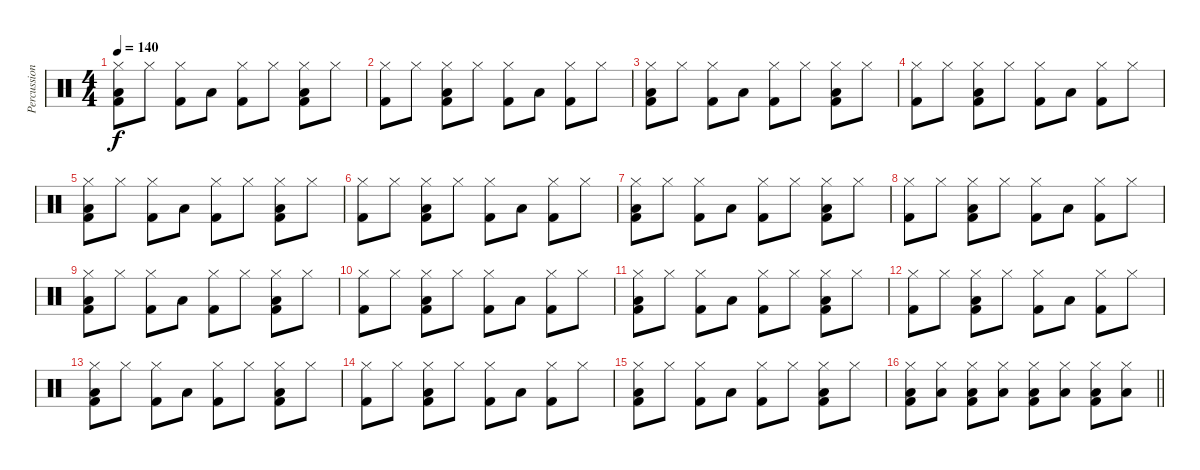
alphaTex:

\track ("Percussion" "Percussion") {instrument percussion}
\staff {score}
\articulation defaults
\ts (4 4)
\tempo 140
\clef neutral
\ks c
("Hi-Hat (closed)" "Low Floor Tom (hit)" "Kick (hit) 2").8{dy f} "Hi-Hat (closed)".8 ("Hi-Hat (closed)" "Kick (hit) 2").8 "Low Floor Tom (hit)".8 ("Hi-Hat (closed)" "Kick (hit) 2").8 "Hi-Hat (closed)".8 ("Hi-Hat (closed)" "Low Floor Tom (hit)" "Kick (hit) 2").8 "Hi-Hat (closed)".8 |
("Hi-Hat (closed)" "Kick (hit) 2").8 "Hi-Hat (closed)".8 ("Hi-Hat (closed)" "Low Floor Tom (hit)" "Kick (hit) 2").8 "Hi-Hat (closed)".8 ("Hi-Hat (closed)" "Kick (hit) 2").8 "Low Floor Tom (hit)".8 ("Hi-Hat (closed)" "Kick (hit) 2").8 "Hi-Hat (closed)".8 |
("Hi-Hat (closed)" "Low Floor Tom (hit)" "Kick (hit) 2").8 "Hi-Hat (closed)".8 ("Hi-Hat (closed)" "Kick (hit) 2").8 "Low Floor Tom (hit)".8 ("Hi-Hat (closed)" "Kick (hit) 2").8 "Hi-Hat (closed)".8 ("Hi-Hat (closed)" "Low Floor Tom (hit)" "Kick (hit) 2").8 "Hi-Hat (closed)".8 |
("Hi-Hat (closed)" "Kick (hit) 2").8 "Hi-Hat (closed)".8 ("Hi-Hat (closed)" "Low Floor Tom (hit)" "Kick (hit) 2").8 "Hi-Hat (closed)".8 ("Hi-Hat (closed)" "Kick (hit) 2").8 "Low Floor Tom (hit)".8 ("Hi-Hat (closed)" "Kick (hit) 2").8 "Hi-Hat (closed)".8 |
("Hi-Hat (closed)" "Low Floor Tom (hit)" "Kick (hit) 2").8 "Hi-Hat (closed)".8 ("Hi-Hat (closed)" "Kick (hit) 2").8 "Low Floor Tom (hit)".8 ("Hi-Hat (closed)" "Kick (hit) 2").8 "Hi-Hat (closed)".8 ("Hi-Hat (closed)" "Low Floor Tom (hit)" "Kick (hit) 2").8 "Hi-Hat (closed)".8 |
("Hi-Hat (closed)" "Kick (hit) 2").8 "Hi-Hat (closed)".8 ("Hi-Hat (closed)" "Low Floor Tom (hit)" "Kick (hit) 2").8 "Hi-Hat (closed)".8 ("Hi-Hat (closed)" "Kick (hit) 2").8 "Low Floor Tom (hit)".8 ("Hi-Hat (closed)" "Kick (hit) 2").8 "Hi-Hat (closed)".8 |
("Hi-Hat (closed)" "Low Floor Tom (hit)" "Kick (hit) 2").8 "Hi-Hat (closed)".8 ("Hi-Hat (closed)" "Kick (hit) 2").8 "Low Floor Tom (hit)".8 ("Hi-Hat (closed)" "Kick (hit) 2").8 "Hi-Hat (closed)".8 ("Hi-Hat (closed)" "Low Floor Tom (hit)" "Kick (hit) 2").8 "Hi-Hat (closed)".8 |
("Hi-Hat (closed)" "Kick (hit) 2").8 "Hi-Hat (closed)".8 ("Hi-Hat (closed)" "Low Floor Tom (hit)" "Kick (hit) 2").8 "Hi-Hat (closed)".8 ("Hi-Hat (closed)" "Kick (hit) 2").8 "Low Floor Tom (hit)".8 ("Hi-Hat (closed)" "Kick (hit) 2").8 "Hi-Hat (closed)".8 |
("Hi-Hat (closed)" "Low Floor Tom (hit)" "Kick (hit) 2").8 "Hi-Hat (closed)".8 ("Hi-Hat (closed)" "Kick (hit) 2").8 "Low Floor Tom (hit)".8 ("Hi-Hat (closed)" "Kick (hit) 2").8 "Hi-Hat (closed)".8 ("Hi-Hat (closed)" "Low Floor Tom (hit)" "Kick (hit) 2").8 "Hi-Hat (closed)".8 |
("Hi-Hat (closed)" "Kick (hit) 2").8 "Hi-Hat (closed)".8 ("Hi-Hat (closed)" "Low Floor Tom (hit)" "Kick (hit) 2").8 "Hi-Hat (closed)".8 ("Hi-Hat (closed)" "Kick (hit) 2").8 "Low Floor Tom (hit)".8 ("Hi-Hat (closed)" "Kick (hit) 2").8 "Hi-Hat (closed)".8 |
("Hi-Hat (closed)" "Low Floor Tom (hit)" "Kick (hit) 2").8 "Hi-Hat (closed)".8 ("Hi-Hat (closed)" "Kick (hit) 2").8 "Low Floor Tom (hit)".8 ("Hi-Hat (closed)" "Kick (hit) 2").8 "Hi-Hat (closed)".8 ("Hi-Hat (closed)" "Low Floor Tom (hit)" "Kick (hit) 2").8 "Hi-Hat (closed)".8 |
("Hi-Hat (closed)" "Kick (hit) 2").8 "Hi-Hat (closed)".8 ("Hi-Hat (closed)" "Low Floor Tom (hit)" "Kick (hit) 2").8 "Hi-Hat (closed)".8 ("Hi-Hat (closed)" "Kick (hit) 2").8 "Low Floor Tom (hit)".8 ("Hi-Hat (closed)" "Kick (hit) 2").8 "Hi-Hat (closed)".8 |
("Hi-Hat (closed)" "Low Floor Tom (hit)" "Kick (hit) 2").8 "Hi-Hat (closed)".8 ("Hi-Hat (closed)" "Kick (hit) 2").8 "Low Floor Tom (hit)".8 ("Hi-Hat (closed)" "Kick (hit) 2").8 "Hi-Hat (closed)".8 ("Hi-Hat (closed)" "Low Floor Tom (hit)" "Kick (hit) 2").8 "Hi-Hat (closed)".8 |
("Hi-Hat (closed)" "Kick (hit) 2").8 "Hi-Hat (closed)".8 ("Hi-Hat (closed)" "Low Floor Tom (hit)" "Kick (hit) 2").8 "Hi-Hat (closed)".8 ("Hi-Hat (closed)" "Kick (hit) 2").8 "Low Floor Tom (hit)".8 ("Hi-Hat (closed)" "Kick (hit) 2").8 "Hi-Hat (closed)".8 |
("Hi-Hat (closed)" "Low Floor Tom (hit)" "Kick (hit) 2").8 "Hi-Hat (closed)".8 ("Hi-Hat (closed)" "Kick (hit) 2").8 "Low Floor Tom (hit)".8 ("Hi-Hat (closed)" "Kick (hit) 2").8 "Hi-Hat (closed)".8 ("Hi-Hat (closed)" "Low Floor Tom (hit)" "Kick (hit) 2").8 "Hi-Hat (closed)".8 |
\barLineRight lightlight
("Hi-Hat (closed)" "Low Floor Tom (hit)" "Kick (hit) 2").8 ("Hi-Hat (closed)" "Low Floor Tom (hit)").8 ("Hi-Hat (closed)" "Low Floor Tom (hit)" "Kick (hit) 2").8 ("Hi-Hat (closed)" "Low Floor Tom (hit)").8 ("Hi-Hat (closed)" "Low Floor Tom (hit)" "Kick (hit) 2").8 ("Hi-Hat (closed)" "Low Floor Tom (hit)").8 ("Hi-Hat (closed)" "Low Floor Tom (hit)" "Kick (hit) 2").8 ("Hi-Hat (closed)" "Low Floor Tom (hit)").8
